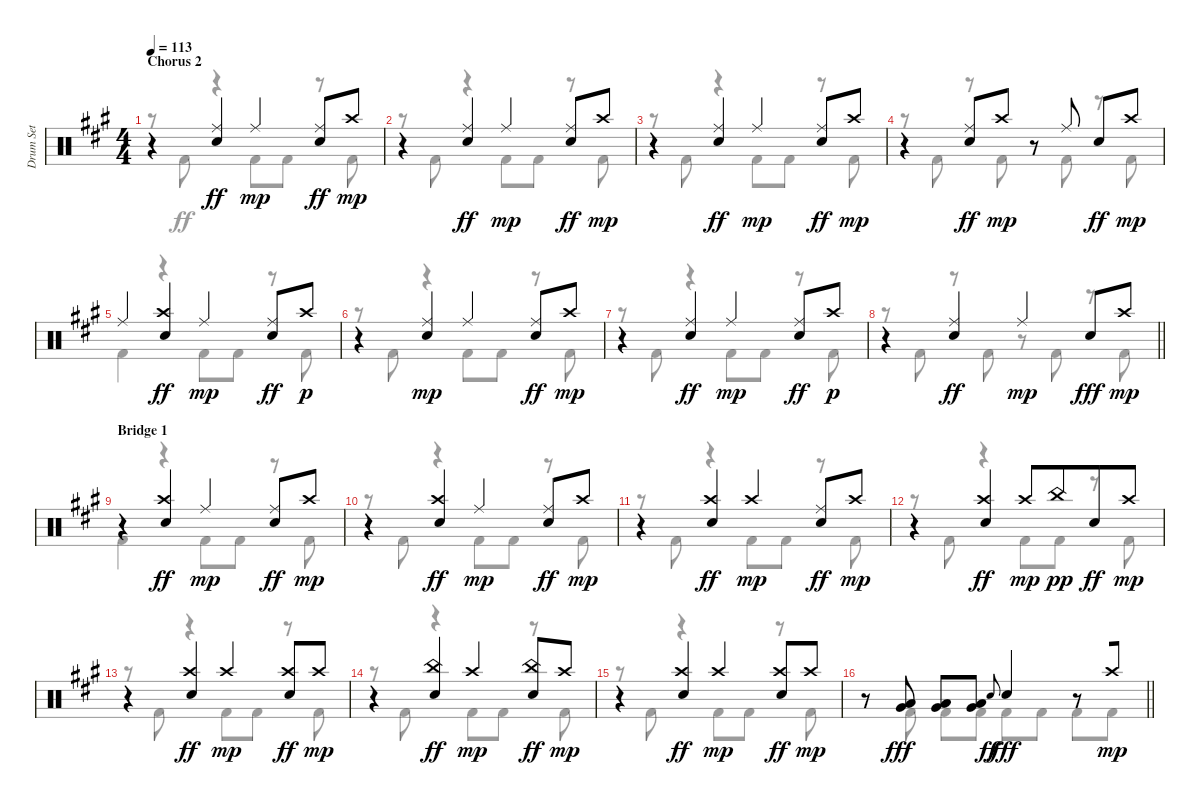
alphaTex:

\track ("Drum Set" "Drum Set") {instrument percussion}
\staff {score}
\articulation defaults
\voice
\ts (4 4)
\section ("" "Chorus 2")
\tempo 113
\clef neutral
\ks f#minor
r.4{dy mp} ("Ride (middle)" "Electric Snare (hit)").4{dy ff} "Ride (middle)".4{dy mp} ("Ride (middle)" "Electric Snare (hit)").8{dy ff} "Crash high (hit)".8{dy mp} |
r.4 ("Ride (middle)" "Electric Snare (hit)").4{dy ff} "Ride (middle)".4{dy mp} ("Ride (middle)" "Electric Snare (hit)").8{dy ff} "Crash high (hit)".8{dy mp} |
r.4 ("Ride (middle)" "Electric Snare (hit)").4{dy ff} "Ride (middle)".4{dy mp} ("Ride (middle)" "Electric Snare (hit)").8{dy ff} "Crash high (hit)".8{dy mp} |
r.4 ("Ride (middle)" "Electric Snare (hit)").8{dy ff} "Crash high (hit)".8{dy mp} r.8 "Ride (middle)".8 "Electric Snare (hit)".8{dy ff} "Crash high (hit)".8{dy mp} |
"Ride (middle)".4 ("Crash high (hit)" "Electric Snare (hit)").4{dy ff} "Ride (middle)".4{dy mp} ("Ride (middle)" "Electric Snare (hit)").8{dy ff} "Crash high (hit)".8{dy p} |
r.4 ("Electric Snare (hit)" "Ride (middle)").4{dy mp} "Ride (middle)".4 ("Ride (middle)" "Electric Snare (hit)").8{dy ff} "Crash high (hit)".8{dy mp} |
r.4 ("Ride (middle)" "Electric Snare (hit)").4{dy ff} "Ride (middle)".4{dy mp} ("Ride (middle)" "Electric Snare (hit)").8{dy ff} "Crash high (hit)".8{dy p} |
\barLineRight lightlight
r.4 ("Ride (middle)" "Electric Snare (hit)").4{dy ff} "Ride (middle)".4{dy mp} "Electric Snare (hit)".8{dy fff} "Crash high (hit)".8{dy mp} |
\section ("" "Bridge 1")
r.4 ("Crash high (hit)" "Electric Snare (hit)").4{dy ff} "Ride (middle)".4{dy mp} ("Ride (middle)" "Electric Snare (hit)").8{dy ff} "Crash high (hit)".8{dy mp} |
r.4 ("Crash high (hit)" "Electric Snare (hit)").4{dy ff} "Ride (middle)".4{dy mp} ("Ride (middle)" "Electric Snare (hit)").8{dy ff} "Crash high (hit)".8{dy mp} |
r.4 ("Crash high (hit)" "Electric Snare (hit)").4{dy ff} "Crash high (hit)".4{dy mp} ("Ride (middle)" "Electric Snare (hit)").8{dy ff} "Crash high (hit)".8{dy mp} |
r.4 ("Crash high (hit)" "Electric Snare (hit)").4{dy ff} "Crash high (hit)".8{dy mp} "China (hit)".8{dy pp beam merge} "Electric Snare (hit)".8{dy ff} "Crash high (hit)".8{dy mp} |
r.4 ("Crash high (hit)" "Electric Snare (hit)").4{dy ff} "Crash high (hit)".4{dy mp} ("Crash high (hit)" "Electric Snare (hit)").8{dy ff} "Crash high (hit)".8{dy mp} |
r.4 ("China (hit)" "Electric Snare (hit)").4{dy ff} "Crash high (hit)".4{dy mp} ("China (hit)" "Electric Snare (hit)").8{dy ff} "Crash high (hit)".8{dy mp} |
r.4 ("Crash high (hit)" "Electric Snare (hit)").4{dy ff} "Crash high (hit)".4{dy mp} ("Crash high (hit)" "Electric Snare (hit)").8{dy ff} "Crash high (hit)".8{dy mp} |
\barLineRight lightlight
r.8 ("Very Low Tom (hit)" "Low Tom (hit)").8{dy fff} ("Low Tom (hit)" "Very Low Tom (hit)").8 ("Low Tom (hit)" "Very Low Tom (hit)").8 "Electric Snare (hit)".8{gr onbeat dy ff} "Electric Snare (hit)".4{dy fff beam merge} r.8 "Crash high (hit)".8{dy mp}
\voice
\clef neutral
\ottava regular
\simile none
\ks f#minor
r.8{dy ff} "Kick (hit) 2".8 r.4 "Kick (hit) 2".8 "Kick (hit) 2".8 r.8 "Kick (hit) 2".8 |
r.8 "Kick (hit) 2".8 r.4 "Kick (hit) 2".8 "Kick (hit) 2".8 r.8 "Kick (hit) 2".8 |
r.8 "Kick (hit) 2".8 r.4 "Kick (hit) 2".8 "Kick (hit) 2".8 r.8 "Kick (hit) 2".8 |
r.8 "Kick (hit) 2".8 r.8 "Kick (hit) 2".8 r.8 "Kick (hit) 2".8 r.8 "Kick (hit) 2".8 |
"Kick (hit) 2".4 r.4 "Kick (hit) 2".8 "Kick (hit) 2".8 r.8 "Kick (hit) 2".8 |
r.8 "Kick (hit) 2".8 r.4 "Kick (hit) 2".8 "Kick (hit) 2".8 r.8 "Kick (hit) 2".8 |
r.8 "Kick (hit) 2".8 r.4 "Kick (hit) 2".8 "Kick (hit) 2".8 r.8 "Kick (hit) 2".8 |
\barLineRight lightlight
r.8 "Kick (hit) 2".8 r.8 "Kick (hit) 2".8 r.8 "Kick (hit) 2".8 r.8 "Kick (hit) 2".8 |
"Kick (hit) 2".4 r.4 "Kick (hit) 2".8 "Kick (hit) 2".8 r.8 "Kick (hit) 2".8 |
r.8 "Kick (hit) 2".8 r.4 "Kick (hit) 2".8 "Kick (hit) 2".8 r.8 "Kick (hit) 2".8 |
r.8 "Kick (hit) 2".8 r.4 "Kick (hit) 2".8 "Kick (hit) 2".8 r.8 "Kick (hit) 2".8 |
r.8 "Kick (hit) 2".8 r.4 "Kick (hit) 2".8 "Kick (hit) 2".8 r.8 "Kick (hit) 2".8 |
r.8 "Kick (hit) 2".8 r.4 "Kick (hit) 2".8 "Kick (hit) 2".8 r.8 "Kick (hit) 2".8 |
r.8 "Kick (hit) 2".8 r.4 "Kick (hit) 2".8 "Kick (hit) 2".8 r.8 "Kick (hit) 2".8 |
r.8 "Kick (hit) 2".8 r.4 "Kick (hit) 2".8 "Kick (hit) 2".8 r.8 "Kick (hit) 2".8 |
\barLineRight lightlight
r.8 "Kick (hit) 2".8{dy fff} "Kick (hit) 2".8 "Kick (hit) 2".8 "Kick (hit) 2".8 "Kick (hit) 2".8 "Kick (hit) 2".8 "Kick (hit) 2".8
